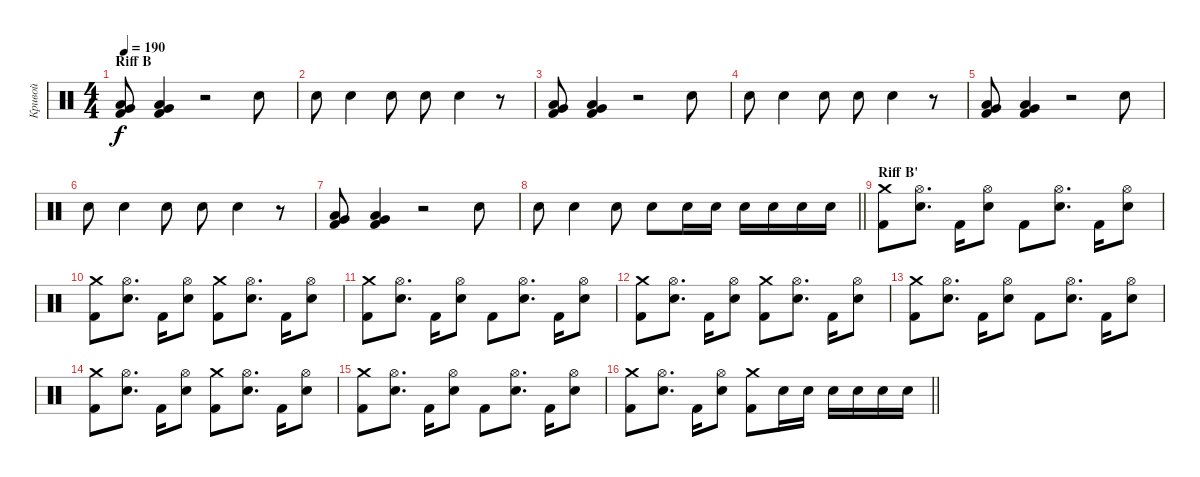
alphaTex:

\track ("Кривой" "Кривой") {instrument percussion}
\staff {score}
\articulation defaults
\ts (4 4)
\section ("" "Riff B")
\tempo 190
\clef neutral
\ks c
("Low Tom (hit)" "Very Low Tom (hit)" "Kick (hit) 2").8{dy f} ("Low Tom (hit)" "Very Low Tom (hit)" "Kick (hit) 2").4 r.2 "Electric Snare (hit)".8 |
"Electric Snare (hit)".8 "Electric Snare (hit)".4 "Electric Snare (hit)".8 "Electric Snare (hit)".8 "Electric Snare (hit)".4 r.8 |
("Low Tom (hit)" "Very Low Tom (hit)" "Kick (hit) 2").8 ("Low Tom (hit)" "Very Low Tom (hit)" "Kick (hit) 2").4 r.2 "Electric Snare (hit)".8 |
"Electric Snare (hit)".8 "Electric Snare (hit)".4 "Electric Snare (hit)".8 "Electric Snare (hit)".8 "Electric Snare (hit)".4 r.8 |
("Low Tom (hit)" "Very Low Tom (hit)" "Kick (hit) 2").8 ("Low Tom (hit)" "Very Low Tom (hit)" "Kick (hit) 2").4 r.2 "Electric Snare (hit)".8 |
"Electric Snare (hit)".8 "Electric Snare (hit)".4 "Electric Snare (hit)".8 "Electric Snare (hit)".8 "Electric Snare (hit)".4 r.8 |
("Low Tom (hit)" "Very Low Tom (hit)" "Kick (hit) 2").8 ("Low Tom (hit)" "Very Low Tom (hit)" "Kick (hit) 2").4 r.2 "Electric Snare (hit)".8 |
\barLineRight lightlight "Electric Snare (hit)".8 "Electric Snare (hit)".4 "Electric Snare (hit)".8 "Electric Snare (hit)".8 "Electric Snare (hit)".16 "Electric Snare (hit)".16 "Electric Snare (hit)".16 "Electric Snare (hit)".16 "Electric Snare (hit)".16 "Electric Snare (hit)".16
|
\section ("" "Riff B'")
("Crash medium (hit)" "Kick (hit) 2").8 ("Hi-Hat (open)" "Electric Snare (hit)").8{d} "Kick (hit) 2".16 ("Hi-Hat (open)" "Electric Snare (hit)").8 "Kick (hit) 2".8 ("Hi-Hat (open)" "Electric Snare (hit)").8{d} "Kick (hit) 2".16 ("Hi-Hat (open)" "Electric Snare (hit)").8 |
("Crash medium (hit)" "Kick (hit) 2").8 ("Hi-Hat (open)" "Electric Snare (hit)").8{d} "Kick (hit) 2".16 ("Hi-Hat (open)" "Electric Snare (hit)").8 ("Crash medium (hit)" "Kick (hit) 2").8 ("Hi-Hat (open)" "Electric Snare (hit)").8{d} "Kick (hit) 2".16 ("Hi-Hat (open)" "Electric Snare (hit)").8 |
("Crash medium (hit)" "Kick (hit) 2").8 ("Hi-Hat (open)" "Electric Snare (hit)").8{d} "Kick (hit) 2".16 ("Hi-Hat (open)" "Electric Snare (hit)").8 "Kick (hit) 2".8 ("Hi-Hat (open)" "Electric Snare (hit)").8{d} "Kick (hit) 2".16 ("Hi-Hat (open)" "Electric Snare (hit)").8 |
("Crash medium (hit)" "Kick (hit) 2").8 ("Hi-Hat (open)" "Electric Snare (hit)").8{d} "Kick (hit) 2".16 ("Hi-Hat (open)" "Electric Snare (hit)").8 ("Crash medium (hit)" "Kick (hit) 2").8 ("Hi-Hat (open)" "Electric Snare (hit)").8{d} "Kick (hit) 2".16 ("Hi-Hat (open)" "Electric Snare (hit)").8 |
("Crash medium (hit)" "Kick (hit) 2").8 ("Hi-Hat (open)" "Electric Snare (hit)").8{d} "Kick (hit) 2".16 ("Hi-Hat (open)" "Electric Snare (hit)").8 "Kick (hit) 2".8 ("Hi-Hat (open)" "Electric Snare (hit)").8{d} "Kick (hit) 2".16 ("Hi-Hat (open)" "Electric Snare (hit)").8 |
("Crash medium (hit)" "Kick (hit) 2").8 ("Hi-Hat (open)" "Electric Snare (hit)").8{d} "Kick (hit) 2".16 ("Hi-Hat (open)" "Electric Snare (hit)").8 ("Crash medium (hit)" "Kick (hit) 2").8 ("Hi-Hat (open)" "Electric Snare (hit)").8{d} "Kick (hit) 2".16 ("Hi-Hat (open)" "Electric Snare (hit)").8 |
("Crash medium (hit)" "Kick (hit) 2").8 ("Hi-Hat (open)" "Electric Snare (hit)").8{d} "Kick (hit) 2".16 ("Hi-Hat (open)" "Electric Snare (hit)").8 "Kick (hit) 2".8 ("Hi-Hat (open)" "Electric Snare (hit)").8{d} "Kick (hit) 2".16 ("Hi-Hat (open)" "Electric Snare (hit)").8 |
\barLineRight lightlight
("Crash medium (hit)" "Kick (hit) 2").8 ("Hi-Hat (open)" "Electric Snare (hit)").8{d} "Kick (hit) 2".16 ("Hi-Hat (open)" "Electric Snare (hit)").8 ("Crash medium (hit)" "Kick (hit) 2").8 "Electric Snare (hit)".16 "Electric Snare (hit)".16 "Electric Snare (hit)".16 "Electric Snare (hit)".16 "Electric Snare (hit)".16 "Electric Snare (hit)".16
